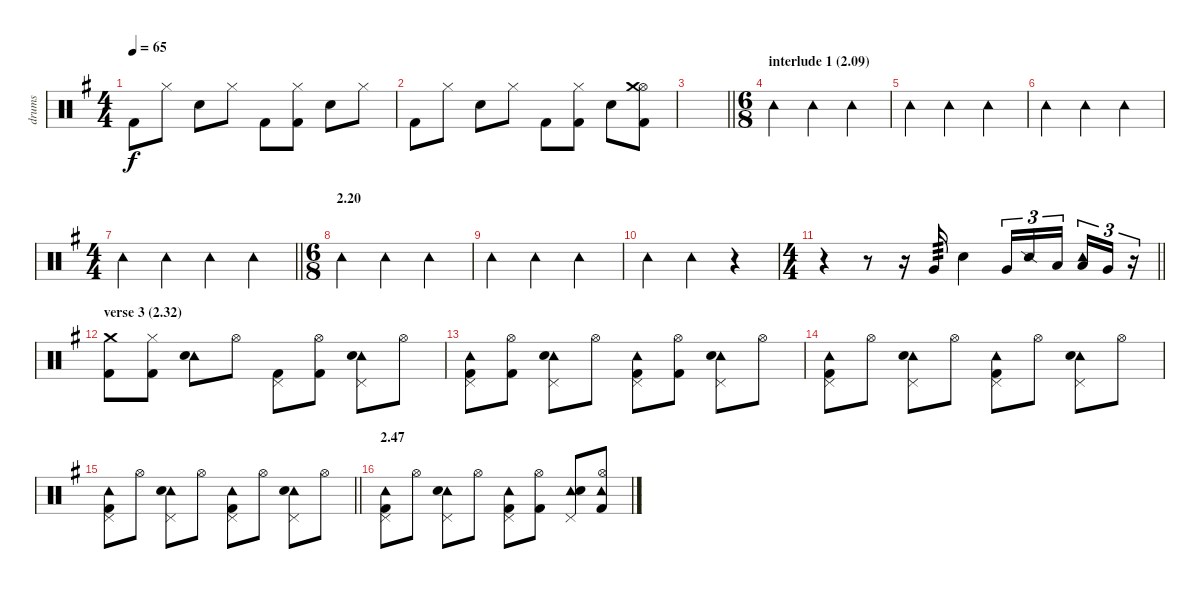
\track ("drums" "drums") {instrument percussion}
\staff {score}
\articulation defaults
\ts (4 4)
\tempo 65
\clef neutral
\ks g "Kick (hit) 2".8{dy f} "Hi-Hat (closed)".8 "Electric Snare (hit)".8 "Hi-Hat (closed)".8 "Kick (hit) 2".8
("Hi-Hat (closed)" "Kick (hit) 2").8 "Electric Snare (hit)".8 "Hi-Hat (closed)".8 |
"Kick (hit) 2".8 "Hi-Hat (closed)".8 "Electric Snare (hit)".8 "Hi-Hat (closed)".8 "Kick (hit) 2".8 ("Hi-Hat (closed)" "Kick (hit) 2").8 "Electric Snare (hit)".8 ("Hi-Hat (open)" "Crash medium (hit)" "Kick (hit) 2").8 |
\barLineRight lightlight
|
\ts (6 8)
\section ("" "interlude 1 (2.09)")
"Tambourine (hit)".4 "Tambourine (hit)".4 "Tambourine (hit)".4 |
"Tambourine (hit)".4 "Tambourine (hit)".4 "Tambourine (hit)".4 |
"Tambourine (hit)".4 "Tambourine (hit)".4 "Tambourine (hit)".4 |
\ts (4 4)
\barLineRight lightlight "Tambourine (hit)".4 "Tambourine (hit)".4 "Tambourine (hit)".4 "Tambourine (hit)".4
|
\ts (6 8)
\section ("" "2.20")
"Tambourine (hit)".4 "Tambourine (hit)".4 "Tambourine (hit)".4 |
"Tambourine (hit)".4 "Tambourine (hit)".4 "Tambourine (hit)".4 |
"Tambourine (hit)".4 "Tambourine (hit)".4 r.4 |
\ts (4 4)
\barLineRight lightlight
r.4 r.8 r.16 "Very Low Tom (hit)".16{tp 3} "Electric Snare (hit)".4 "Very Low Tom (hit)".16{tu (3 2)} "Snare (side stick) 2".16{tu (3 2)} "Low Tom (hit)".16{tu (3 2) beam splitsecondary} ("Tambourine (hit)" "Low Tom (hit)").16{tu (3 2)} "Very Low Tom (hit)".16{tu (3 2)} r.16{tu (3 2)} |
\section ("" "verse 3 (2.32)")
("Crash medium (hit)" "Kick (hit) 2").8 ("Hi-Hat (closed)" "Kick (hit) 2").8 ("Tambourine (hit)" "Electric Snare (hit)").8 "Hi-Hat (open)".8 ("Pedal Hi-Hat (hit)" "Kick (hit) 2").8 ("Hi-Hat (open)" "Kick (hit) 2").8 ("Pedal Hi-Hat (hit)" "Tambourine (hit)" "Electric Snare (hit)").8 "Hi-Hat (open)".8 |
("Pedal Hi-Hat (hit)" "Tambourine (hit)" "Kick (hit) 2").8 ("Hi-Hat (open)" "Kick (hit) 2").8 ("Pedal Hi-Hat (hit)" "Tambourine (hit)" "Electric Snare (hit)").8 "Hi-Hat (open)".8 ("Pedal Hi-Hat (hit)" "Tambourine (hit)" "Kick (hit) 2").8 ("Hi-Hat (open)" "Kick (hit) 2").8 ("Pedal Hi-Hat (hit)" "Tambourine (hit)" "Electric Snare (hit)").8 "Hi-Hat (open)".8 |
("Pedal Hi-Hat (hit)" "Tambourine (hit)" "Kick (hit) 2").8 "Hi-Hat (open)".8 ("Pedal Hi-Hat (hit)" "Tambourine (hit)" "Electric Snare (hit)").8 "Hi-Hat (open)".8 ("Pedal Hi-Hat (hit)" "Tambourine (hit)" "Kick (hit) 2").8 "Hi-Hat (open)".8 ("Pedal Hi-Hat (hit)" "Tambourine (hit)" "Electric Snare (hit)").8 "Hi-Hat (open)".8 |
\barLineRight lightlight
("Pedal Hi-Hat (hit)" "Tambourine (hit)" "Kick (hit) 2").8 "Hi-Hat (open)".8 ("Pedal Hi-Hat (hit)" "Tambourine (hit)" "Electric Snare (hit)").8 "Hi-Hat (open)".8 ("Pedal Hi-Hat (hit)" "Tambourine (hit)" "Kick (hit) 2").8 "Hi-Hat (open)".8 ("Pedal Hi-Hat (hit)" "Tambourine (hit)" "Electric Snare (hit)").8 "Hi-Hat (open)".8 |
\section ("" "2.47")
("Pedal Hi-Hat (hit)" "Tambourine (hit)" "Kick (hit) 2").8 "Hi-Hat (open)".8 ("Pedal Hi-Hat (hit)" "Tambourine (hit)" "Electric Snare (hit)").8 "Hi-Hat (open)".8 ("Pedal Hi-Hat (hit)" "Tambourine (hit)" "Kick (hit) 2").8 ("Hi-Hat (open)" "Kick (hit) 2").8 ("Pedal Hi-Hat (hit)" "Tambourine (hit)" "Electric Snare (hit)").8 ("Hi-Hat (open)" "Tambourine (hit)" "Kick (hit) 2").8
